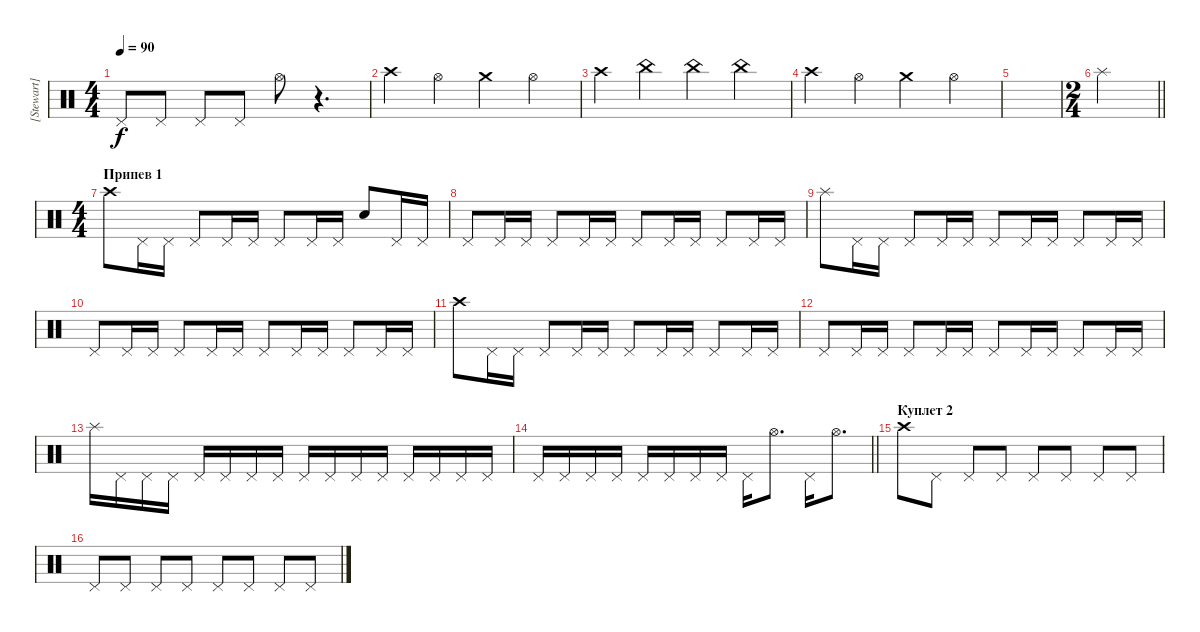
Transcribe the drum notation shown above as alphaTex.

\track ("[Stewart] (hats)" "[Stewart] ") {instrument percussion}
\staff {score}
\articulation defaults
\ts (4 4)
\tempo 90
\clef neutral
\ks c "Pedal Hi-Hat (hit)".8{dy f} "Pedal Hi-Hat (hit)".8 "Pedal Hi-Hat (hit)".8 "Pedal Hi-Hat (hit)".8 "Hi-Hat (open)".8
r.4{d} |
"Crash high (hit)".4 "Hi-Hat (open)".4 "Crash medium (hit)".4 "Hi-Hat (open)".4 |
"Crash high (hit)".4 "China (hit)".4 "China (hit)".4 "China (hit)".4 |
"Crash high (hit)".4 "Hi-Hat (open)".4 "Crash medium (hit)".4 "Hi-Hat (open)".4 |
|
\ts (2 4)
\barLineRight lightlight "Splash (hit)".2
|
\ts (4 4)
\section ("" "Припев 1")
"Crash high (hit)".8 "Pedal Hi-Hat (hit)".16 "Pedal Hi-Hat (hit)".16 "Pedal Hi-Hat (hit)".8 "Pedal Hi-Hat (hit)".16 "Pedal Hi-Hat (hit)".16 "Pedal Hi-Hat (hit)".8 "Pedal Hi-Hat (hit)".16 "Pedal Hi-Hat (hit)".16 "Snare (hit)".8 "Pedal Hi-Hat (hit)".16 "Pedal Hi-Hat (hit)".16 |
"Pedal Hi-Hat (hit)".8 "Pedal Hi-Hat (hit)".16 "Pedal Hi-Hat (hit)".16 "Pedal Hi-Hat (hit)".8 "Pedal Hi-Hat (hit)".16 "Pedal Hi-Hat (hit)".16 "Pedal Hi-Hat (hit)".8 "Pedal Hi-Hat (hit)".16 "Pedal Hi-Hat (hit)".16 "Pedal Hi-Hat (hit)".8 "Pedal Hi-Hat (hit)".16 "Pedal Hi-Hat (hit)".16 |
"Splash (hit)".8 "Pedal Hi-Hat (hit)".16 "Pedal Hi-Hat (hit)".16 "Pedal Hi-Hat (hit)".8 "Pedal Hi-Hat (hit)".16 "Pedal Hi-Hat (hit)".16 "Pedal Hi-Hat (hit)".8 "Pedal Hi-Hat (hit)".16 "Pedal Hi-Hat (hit)".16 "Pedal Hi-Hat (hit)".8 "Pedal Hi-Hat (hit)".16 "Pedal Hi-Hat (hit)".16 |
"Pedal Hi-Hat (hit)".8 "Pedal Hi-Hat (hit)".16 "Pedal Hi-Hat (hit)".16 "Pedal Hi-Hat (hit)".8 "Pedal Hi-Hat (hit)".16 "Pedal Hi-Hat (hit)".16 "Pedal Hi-Hat (hit)".8 "Pedal Hi-Hat (hit)".16 "Pedal Hi-Hat (hit)".16 "Pedal Hi-Hat (hit)".8 "Pedal Hi-Hat (hit)".16 "Pedal Hi-Hat (hit)".16 |
"Crash high (hit)".8 "Pedal Hi-Hat (hit)".16 "Pedal Hi-Hat (hit)".16 "Pedal Hi-Hat (hit)".8 "Pedal Hi-Hat (hit)".16 "Pedal Hi-Hat (hit)".16 "Pedal Hi-Hat (hit)".8 "Pedal Hi-Hat (hit)".16 "Pedal Hi-Hat (hit)".16 "Pedal Hi-Hat (hit)".8 "Pedal Hi-Hat (hit)".16 "Pedal Hi-Hat (hit)".16 |
"Pedal Hi-Hat (hit)".8 "Pedal Hi-Hat (hit)".16 "Pedal Hi-Hat (hit)".16 "Pedal Hi-Hat (hit)".8 "Pedal Hi-Hat (hit)".16 "Pedal Hi-Hat (hit)".16 "Pedal Hi-Hat (hit)".8 "Pedal Hi-Hat (hit)".16 "Pedal Hi-Hat (hit)".16 "Pedal Hi-Hat (hit)".8 "Pedal Hi-Hat (hit)".16 "Pedal Hi-Hat (hit)".16 |
"Splash (hit)".16 "Pedal Hi-Hat (hit)".16 "Pedal Hi-Hat (hit)".16 "Pedal Hi-Hat (hit)".16 "Pedal Hi-Hat (hit)".16 "Pedal Hi-Hat (hit)".16 "Pedal Hi-Hat (hit)".16 "Pedal Hi-Hat (hit)".16 "Pedal Hi-Hat (hit)".16 "Pedal Hi-Hat (hit)".16 "Pedal Hi-Hat (hit)".16 "Pedal Hi-Hat (hit)".16 "Pedal Hi-Hat (hit)".16 "Pedal Hi-Hat (hit)".16 "Pedal Hi-Hat (hit)".16 "Pedal Hi-Hat (hit)".16 |
\barLineRight lightlight "Pedal Hi-Hat (hit)".16 "Pedal Hi-Hat (hit)".16 "Pedal Hi-Hat (hit)".16 "Pedal Hi-Hat (hit)".16 "Pedal Hi-Hat (hit)".16 "Pedal Hi-Hat (hit)".16 "Pedal Hi-Hat (hit)".16 "Pedal Hi-Hat (hit)".16 "Pedal Hi-Hat (hit)".16 "Hi-Hat (open)".8{d} "Pedal Hi-Hat (hit)".16 "Hi-Hat (open)".8{d}
|
\section ("" "Куплет 2")
"Crash high (hit)".8 "Pedal Hi-Hat (hit)".8 "Pedal Hi-Hat (hit)".8 "Pedal Hi-Hat (hit)".8 "Pedal Hi-Hat (hit)".8 "Pedal Hi-Hat (hit)".8 "Pedal Hi-Hat (hit)".8 "Pedal Hi-Hat (hit)".8 |
"Pedal Hi-Hat (hit)".8 "Pedal Hi-Hat (hit)".8 "Pedal Hi-Hat (hit)".8 "Pedal Hi-Hat (hit)".8 "Pedal Hi-Hat (hit)".8 "Pedal Hi-Hat (hit)".8 "Pedal Hi-Hat (hit)".8 "Pedal Hi-Hat (hit)".8
